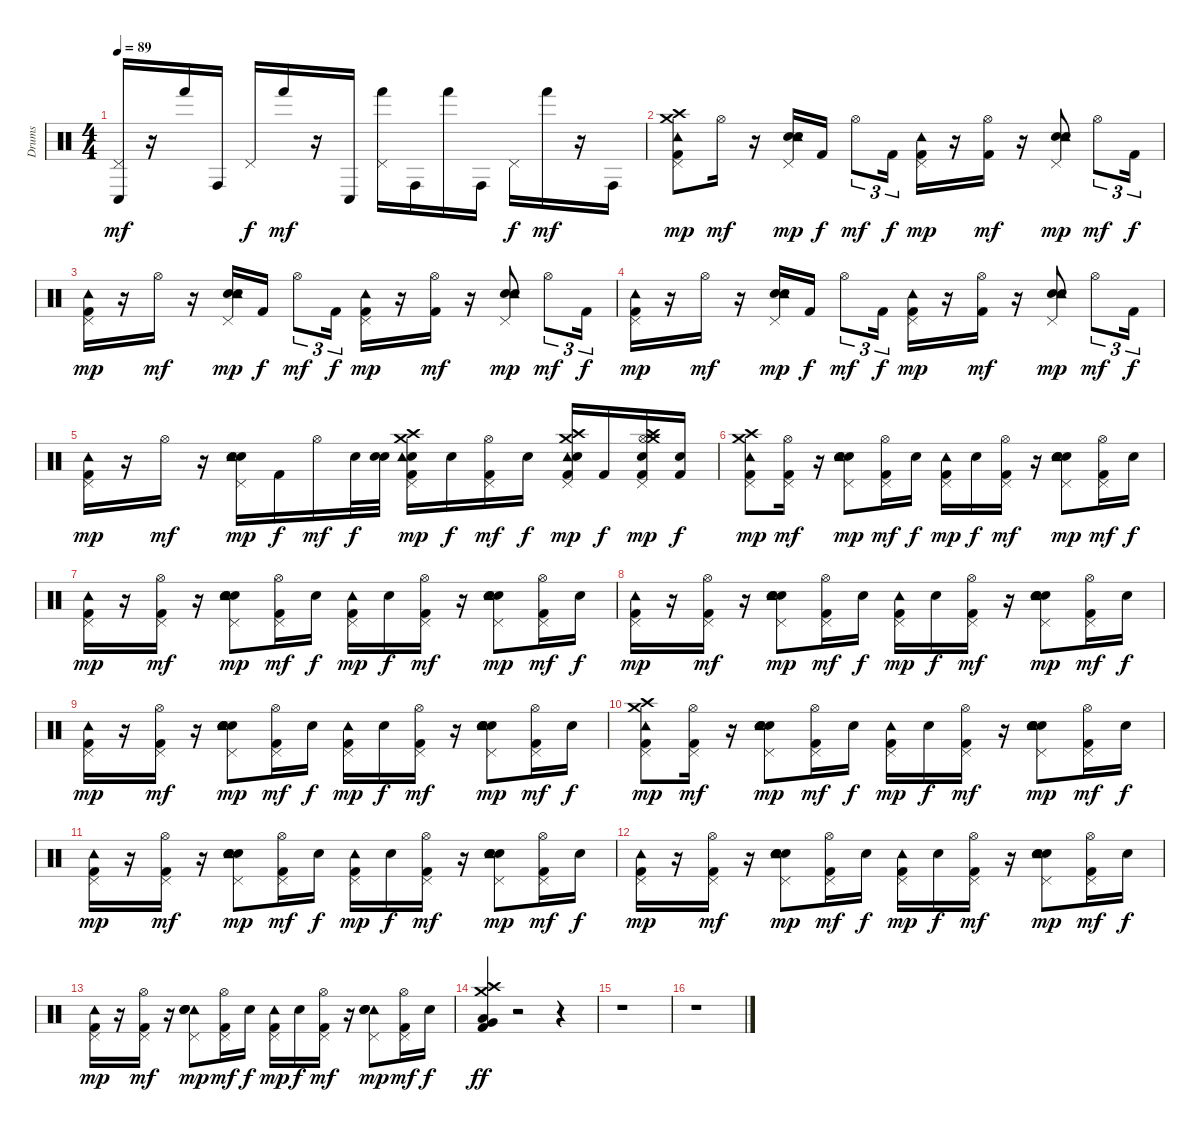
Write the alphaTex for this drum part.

\track ("Drums" "Drums") {instrument percussion}
\staff {score}
\articulation defaults
\ts (4 4)
\tempo 89
\clef neutral
\ks c
("Conga low (hit)" "Pedal Hi-Hat (hit)").16{dy mf} r.16 "Hand (hit)".16 "Conga high (hit)".16 "Pedal Hi-Hat (hit)".16{dy f} "Hand (hit)".16{dy mf} r.16 "Conga low (hit)".16 ("Hand (hit)" "Pedal Hi-Hat (hit)").16 "Conga high (hit)".16 "Hand (hit)".16 "Conga high (hit)".16 "Pedal Hi-Hat (hit)".16{dy f} "Hand (hit)".16{dy mf} r.16 "Conga high (hit)".16 |
("Kick (hit) 2" "Tambourine (hit)" "Crash high (hit)" "Crash medium (hit)" "Pedal Hi-Hat (hit)").8{dy mp} "Hi-Hat (open)".16{dy mf} r.16 ("Snare (hit) 2" "Hand Clap (hit)" "Tambourine (hit)" "Pedal Hi-Hat (hit)").16{dy mp} "Kick (hit) 2".16{dy f} "Hi-Hat (open)".8{tu (3 2) dy mf} "Kick (hit) 2".16{tu (3 2) dy f} ("Kick (hit) 2" "Tambourine (hit)" "Pedal Hi-Hat (hit)").16{dy mp} r.16 ("Kick (hit) 2" "Hi-Hat (open)").16{dy mf} r.16 ("Snare (hit) 2" "Hand Clap (hit)" "Tambourine (hit)" "Pedal Hi-Hat (hit)").8{dy mp} "Hi-Hat (open)".8{tu (3 2) dy mf} "Kick (hit) 2".16{tu (3 2) dy f} |
("Kick (hit) 2" "Tambourine (hit)" "Pedal Hi-Hat (hit)").16{dy mp} r.16 "Hi-Hat (open)".16{dy mf} r.16 ("Snare (hit) 2" "Hand Clap (hit)" "Tambourine (hit)" "Pedal Hi-Hat (hit)").16{dy mp} "Kick (hit) 2".16{dy f} "Hi-Hat (open)".8{tu (3 2) dy mf} "Kick (hit) 2".16{tu (3 2) dy f} ("Kick (hit) 2" "Tambourine (hit)" "Pedal Hi-Hat (hit)").16{dy mp} r.16 ("Kick (hit) 2" "Hi-Hat (open)").16{dy mf} r.16 ("Snare (hit) 2" "Hand Clap (hit)" "Tambourine (hit)" "Pedal Hi-Hat (hit)").8{dy mp} "Hi-Hat (open)".8{tu (3 2) dy mf} "Kick (hit) 2".16{tu (3 2) dy f} |
("Kick (hit) 2" "Tambourine (hit)" "Pedal Hi-Hat (hit)").16{dy mp} r.16 "Hi-Hat (open)".16{dy mf} r.16 ("Snare (hit) 2" "Hand Clap (hit)" "Tambourine (hit)" "Pedal Hi-Hat (hit)").16{dy mp} "Kick (hit) 2".16{dy f} "Hi-Hat (open)".8{tu (3 2) dy mf} "Kick (hit) 2".16{tu (3 2) dy f} ("Kick (hit) 2" "Tambourine (hit)" "Pedal Hi-Hat (hit)").16{dy mp} r.16 ("Kick (hit) 2" "Hi-Hat (open)").16{dy mf} r.16 ("Snare (hit) 2" "Hand Clap (hit)" "Tambourine (hit)" "Pedal Hi-Hat (hit)").8{dy mp} "Hi-Hat (open)".8{tu (3 2) dy mf} "Kick (hit) 2".16{tu (3 2) dy f} |
("Kick (hit) 2" "Tambourine (hit)" "Pedal Hi-Hat (hit)").16{dy mp} r.16 "Hi-Hat (open)".16{dy mf} r.16 ("Snare (hit) 2" "Hand Clap (hit)" "Tambourine (hit)" "Pedal Hi-Hat (hit)").16{dy mp} "Kick (hit) 2".16{dy f} "Hi-Hat (open)".16{dy mf} "Electric Snare (hit)".32{dy f} ("Electric Snare (hit)" "Electric Snare (hit)").32 ("Kick (hit) 2" "Crash high (hit)" "Crash medium (hit)" "Electric Snare (hit)" "Tambourine (hit)" "Pedal Hi-Hat (hit)").16{dy mp} "Electric Snare (hit)".16{dy f} ("Kick (hit) 2" "Hi-Hat (open)" "Pedal Hi-Hat (hit)").16{dy mf} "Electric Snare (hit)".16{dy f} ("Kick (hit) 2" "Crash high (hit)" "Crash medium (hit)" "Tambourine (hit)" "Pedal Hi-Hat (hit)" "Electric Snare (hit)").16{dy mp} "Kick (hit) 2".16{dy f} ("Kick (hit) 2" "Hi-Hat (open)" "Pedal Hi-Hat (hit)" "Crash high (hit)" "Crash medium (hit)" "Electric Snare (hit)").16{dy mp} ("Kick (hit) 2" "Electric Snare (hit)").16{dy f} |
("Kick (hit) 2" "Tambourine (hit)" "Crash high (hit)" "Crash medium (hit)" "Pedal Hi-Hat (hit)").8{dy mp} ("Kick (hit) 2" "Hi-Hat (open)" "Pedal Hi-Hat (hit)").16{dy mf} r.16 ("Electric Snare (hit)" "Snare (hit) 2" "Hand Clap (hit)" "Tambourine (hit)" "Pedal Hi-Hat (hit)").8{dy mp} ("Kick (hit) 2" "Hi-Hat (open)" "Pedal Hi-Hat (hit)").16{dy mf} "Snare (hit) 2".16{dy f} ("Kick (hit) 2" "Tambourine (hit)" "Pedal Hi-Hat (hit)").16{dy mp} "Snare (hit) 2".16{dy f} ("Kick (hit) 2" "Hi-Hat (open)" "Pedal Hi-Hat (hit)").16{dy mf} r.16 ("Electric Snare (hit)" "Snare (hit) 2" "Hand Clap (hit)" "Tambourine (hit)" "Pedal Hi-Hat (hit)").8{dy mp} ("Kick (hit) 2" "Hi-Hat (open)" "Pedal Hi-Hat (hit)").16{dy mf} "Snare (hit) 2".16{dy f} |
("Kick (hit) 2" "Tambourine (hit)" "Pedal Hi-Hat (hit)").16{dy mp} r.16 ("Kick (hit) 2" "Hi-Hat (open)" "Pedal Hi-Hat (hit)").16{dy mf} r.16 ("Electric Snare (hit)" "Hand Clap (hit)" "Snare (hit) 2" "Tambourine (hit)" "Pedal Hi-Hat (hit)").8{dy mp} ("Kick (hit) 2" "Hi-Hat (open)" "Pedal Hi-Hat (hit)").16{dy mf} "Snare (hit) 2".16{dy f} ("Kick (hit) 2" "Tambourine (hit)" "Pedal Hi-Hat (hit)").16{dy mp} "Snare (hit) 2".16{dy f} ("Kick (hit) 2" "Hi-Hat (open)" "Pedal Hi-Hat (hit)").16{dy mf} r.16 ("Electric Snare (hit)" "Hand Clap (hit)" "Snare (hit) 2" "Tambourine (hit)" "Pedal Hi-Hat (hit)").8{dy mp} ("Kick (hit) 2" "Hi-Hat (open)" "Pedal Hi-Hat (hit)").16{dy mf} "Snare (hit) 2".16{dy f} |
("Kick (hit) 2" "Tambourine (hit)" "Pedal Hi-Hat (hit)").16{dy mp} r.16 ("Kick (hit) 2" "Hi-Hat (open)" "Pedal Hi-Hat (hit)").16{dy mf} r.16 ("Electric Snare (hit)" "Hand Clap (hit)" "Snare (hit) 2" "Tambourine (hit)" "Pedal Hi-Hat (hit)").8{dy mp} ("Kick (hit) 2" "Hi-Hat (open)" "Pedal Hi-Hat (hit)").16{dy mf} "Snare (hit) 2".16{dy f} ("Kick (hit) 2" "Tambourine (hit)" "Pedal Hi-Hat (hit)").16{dy mp} "Snare (hit) 2".16{dy f} ("Kick (hit) 2" "Hi-Hat (open)" "Pedal Hi-Hat (hit)").16{dy mf} r.16 ("Electric Snare (hit)" "Hand Clap (hit)" "Snare (hit) 2" "Tambourine (hit)" "Pedal Hi-Hat (hit)").8{dy mp} ("Kick (hit) 2" "Hi-Hat (open)" "Pedal Hi-Hat (hit)").16{dy mf} "Snare (hit) 2".16{dy f} |
("Kick (hit) 2" "Tambourine (hit)" "Pedal Hi-Hat (hit)").16{dy mp} r.16 ("Kick (hit) 2" "Hi-Hat (open)" "Pedal Hi-Hat (hit)").16{dy mf} r.16 ("Electric Snare (hit)" "Hand Clap (hit)" "Snare (hit) 2" "Tambourine (hit)" "Pedal Hi-Hat (hit)").8{dy mp} ("Kick (hit) 2" "Hi-Hat (open)" "Pedal Hi-Hat (hit)").16{dy mf} "Snare (hit) 2".16{dy f} ("Kick (hit) 2" "Tambourine (hit)" "Pedal Hi-Hat (hit)").16{dy mp} "Snare (hit) 2".16{dy f} ("Kick (hit) 2" "Hi-Hat (open)" "Pedal Hi-Hat (hit)").16{dy mf} r.16 ("Electric Snare (hit)" "Hand Clap (hit)" "Snare (hit) 2" "Tambourine (hit)" "Pedal Hi-Hat (hit)").8{dy mp} ("Kick (hit) 2" "Hi-Hat (open)" "Pedal Hi-Hat (hit)").16{dy mf} "Snare (hit) 2".16{dy f} |
("Kick (hit) 2" "Tambourine (hit)" "Crash high (hit)" "Crash medium (hit)" "Pedal Hi-Hat (hit)").8{dy mp} ("Kick (hit) 2" "Hi-Hat (open)" "Pedal Hi-Hat (hit)").16{dy mf} r.16 ("Electric Snare (hit)" "Snare (hit) 2" "Hand Clap (hit)" "Tambourine (hit)" "Pedal Hi-Hat (hit)").8{dy mp} ("Kick (hit) 2" "Hi-Hat (open)" "Pedal Hi-Hat (hit)").16{dy mf} "Snare (hit) 2".16{dy f} ("Kick (hit) 2" "Tambourine (hit)" "Pedal Hi-Hat (hit)").16{dy mp} "Snare (hit) 2".16{dy f} ("Kick (hit) 2" "Hi-Hat (open)" "Pedal Hi-Hat (hit)").16{dy mf} r.16 ("Electric Snare (hit)" "Snare (hit) 2" "Hand Clap (hit)" "Tambourine (hit)" "Pedal Hi-Hat (hit)").8{dy mp} ("Kick (hit) 2" "Hi-Hat (open)" "Pedal Hi-Hat (hit)").16{dy mf} "Snare (hit) 2".16{dy f} |
("Kick (hit) 2" "Tambourine (hit)" "Pedal Hi-Hat (hit)").16{dy mp} r.16 ("Kick (hit) 2" "Hi-Hat (open)" "Pedal Hi-Hat (hit)").16{dy mf} r.16 ("Electric Snare (hit)" "Hand Clap (hit)" "Snare (hit) 2" "Tambourine (hit)" "Pedal Hi-Hat (hit)").8{dy mp} ("Kick (hit) 2" "Hi-Hat (open)" "Pedal Hi-Hat (hit)").16{dy mf} "Snare (hit) 2".16{dy f} ("Kick (hit) 2" "Tambourine (hit)" "Pedal Hi-Hat (hit)").16{dy mp} "Snare (hit) 2".16{dy f} ("Kick (hit) 2" "Hi-Hat (open)" "Pedal Hi-Hat (hit)").16{dy mf} r.16 ("Electric Snare (hit)" "Hand Clap (hit)" "Snare (hit) 2" "Tambourine (hit)" "Pedal Hi-Hat (hit)").8{dy mp} ("Kick (hit) 2" "Hi-Hat (open)" "Pedal Hi-Hat (hit)").16{dy mf} "Snare (hit) 2".16{dy f} |
("Tambourine (hit)" "Pedal Hi-Hat (hit)" "Kick (hit) 2").16{dy mp} r.16 ("Kick (hit) 2" "Hi-Hat (open)" "Pedal Hi-Hat (hit)").16{dy mf} r.16 ("Electric Snare (hit)" "Hand Clap (hit)" "Snare (hit) 2" "Tambourine (hit)" "Pedal Hi-Hat (hit)").8{dy mp} ("Kick (hit) 2" "Hi-Hat (open)" "Pedal Hi-Hat (hit)").16{dy mf} "Snare (hit) 2".16{dy f} ("Kick (hit) 2" "Tambourine (hit)" "Pedal Hi-Hat (hit)").16{dy mp} "Snare (hit) 2".16{dy f} ("Kick (hit) 2" "Hi-Hat (open)" "Pedal Hi-Hat (hit)").16{dy mf} r.16 ("Electric Snare (hit)" "Hand Clap (hit)" "Snare (hit) 2" "Tambourine (hit)" "Pedal Hi-Hat (hit)").8{dy mp} ("Kick (hit) 2" "Hi-Hat (open)" "Pedal Hi-Hat (hit)").16{dy mf} "Snare (hit) 2".16{dy f} |
("Tambourine (hit)" "Pedal Hi-Hat (hit)" "Kick (hit) 2").16{dy mp} r.16 ("Hi-Hat (open)" "Pedal Hi-Hat (hit)" "Kick (hit) 2").16{dy mf} r.16 ("Tambourine (hit)" "Pedal Hi-Hat (hit)" "Electric Snare (hit)" "Hand Clap (hit)" "Snare (hit) 2").8{dy mp} ("Hi-Hat (open)" "Pedal Hi-Hat (hit)" "Kick (hit) 2").16{dy mf} "Snare (hit) 2".16{dy f} ("Tambourine (hit)" "Pedal Hi-Hat (hit)" "Kick (hit) 2").16{dy mp} "Snare (hit) 2".16{dy f} ("Hi-Hat (open)" "Pedal Hi-Hat (hit)" "Kick (hit) 2").16{dy mf} r.16 ("Tambourine (hit)" "Pedal Hi-Hat (hit)" "Electric Snare (hit)" "Hand Clap (hit)" "Snare (hit) 2").8{dy mp} ("Hi-Hat (open)" "Pedal Hi-Hat (hit)" "Kick (hit) 2").16{dy mf} "Snare (hit) 2".16{dy f} |
("Crash high (hit)" "Crash medium (hit)" "Low Tom (hit)" "Very Low Tom (hit)" "Kick (hit) 2").4{dy ff} r.2 r.4 |
r.1 |
r.1
